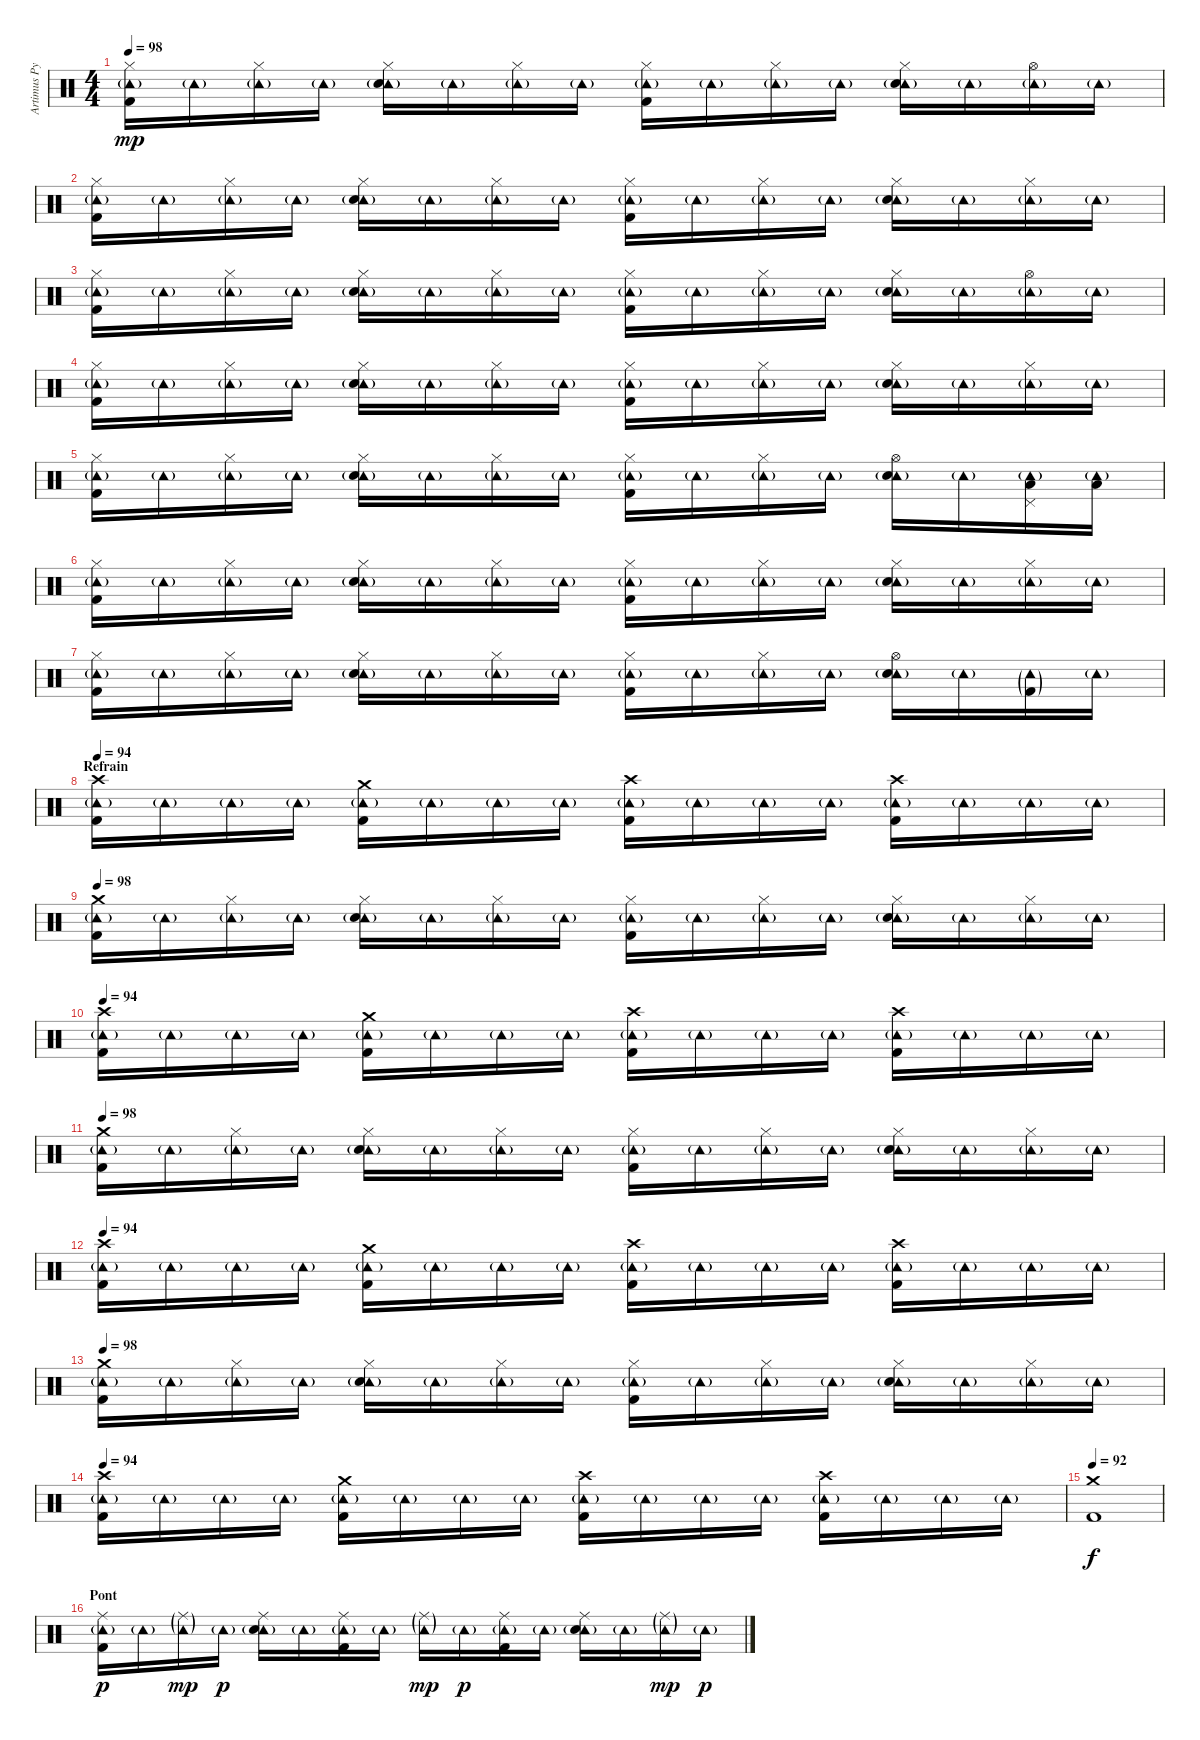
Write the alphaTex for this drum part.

\track ("Artimus Pyle (drums)" "Artimus Py") {instrument percussion}
\staff {score}
\articulation defaults
\ts (4 4)
\tempo 98
\clef neutral
\ks c
("Tambourine (hit)"{g} "Hi-Hat (closed)" "Kick (hit) 2").16{dy mp} "Tambourine (hit)"{g}.16 ("Tambourine (hit)"{g} "Hi-Hat (closed)").16 "Tambourine (hit)"{g}.16 ("Tambourine (hit)"{g} "Hi-Hat (closed)" "Electric Snare (hit)").16 "Tambourine (hit)"{g}.16 ("Tambourine (hit)"{g} "Hi-Hat (closed)").16 "Tambourine (hit)"{g}.16 ("Tambourine (hit)"{g} "Hi-Hat (closed)" "Kick (hit) 2").16 "Tambourine (hit)"{g}.16 ("Tambourine (hit)"{g} "Hi-Hat (closed)").16 "Tambourine (hit)"{g}.16 ("Tambourine (hit)"{g} "Hi-Hat (closed)" "Electric Snare (hit)").16 "Tambourine (hit)"{g}.16 ("Tambourine (hit)"{g} "Hi-Hat (open)").16 "Tambourine (hit)"{g}.16 |
("Tambourine (hit)"{g} "Hi-Hat (closed)" "Kick (hit) 2").16 "Tambourine (hit)"{g}.16 ("Tambourine (hit)"{g} "Hi-Hat (closed)").16 "Tambourine (hit)"{g}.16 ("Tambourine (hit)"{g} "Hi-Hat (closed)" "Electric Snare (hit)").16 "Tambourine (hit)"{g}.16 ("Tambourine (hit)"{g} "Hi-Hat (closed)").16 "Tambourine (hit)"{g}.16 ("Tambourine (hit)"{g} "Hi-Hat (closed)" "Kick (hit) 2").16 "Tambourine (hit)"{g}.16 ("Tambourine (hit)"{g} "Hi-Hat (closed)").16 "Tambourine (hit)"{g}.16 ("Tambourine (hit)"{g} "Hi-Hat (closed)" "Electric Snare (hit)").16 "Tambourine (hit)"{g}.16 ("Tambourine (hit)"{g} "Hi-Hat (closed)").16 "Tambourine (hit)"{g}.16 |
("Tambourine (hit)"{g} "Hi-Hat (closed)" "Kick (hit) 2").16 "Tambourine (hit)"{g}.16 ("Tambourine (hit)"{g} "Hi-Hat (closed)").16 "Tambourine (hit)"{g}.16 ("Tambourine (hit)"{g} "Hi-Hat (closed)" "Electric Snare (hit)").16 "Tambourine (hit)"{g}.16 ("Tambourine (hit)"{g} "Hi-Hat (closed)").16 "Tambourine (hit)"{g}.16 ("Tambourine (hit)"{g} "Hi-Hat (closed)" "Kick (hit) 2").16 "Tambourine (hit)"{g}.16 ("Tambourine (hit)"{g} "Hi-Hat (closed)").16 "Tambourine (hit)"{g}.16 ("Tambourine (hit)"{g} "Hi-Hat (closed)" "Electric Snare (hit)").16 "Tambourine (hit)"{g}.16 ("Tambourine (hit)"{g} "Hi-Hat (open)").16 "Tambourine (hit)"{g}.16 |
("Tambourine (hit)"{g} "Hi-Hat (closed)" "Kick (hit) 2").16 "Tambourine (hit)"{g}.16 ("Tambourine (hit)"{g} "Hi-Hat (closed)").16 "Tambourine (hit)"{g}.16 ("Tambourine (hit)"{g} "Hi-Hat (closed)" "Electric Snare (hit)").16 "Tambourine (hit)"{g}.16 ("Tambourine (hit)"{g} "Hi-Hat (closed)").16 "Tambourine (hit)"{g}.16 ("Tambourine (hit)"{g} "Hi-Hat (closed)" "Kick (hit) 2").16 "Tambourine (hit)"{g}.16 ("Tambourine (hit)"{g} "Hi-Hat (closed)").16 "Tambourine (hit)"{g}.16 ("Tambourine (hit)"{g} "Hi-Hat (closed)" "Electric Snare (hit)").16 "Tambourine (hit)"{g}.16 ("Tambourine (hit)"{g} "Hi-Hat (closed)").16 "Tambourine (hit)"{g}.16 |
("Tambourine (hit)"{g} "Hi-Hat (closed)" "Kick (hit) 2").16 "Tambourine (hit)"{g}.16 ("Tambourine (hit)"{g} "Hi-Hat (closed)").16 "Tambourine (hit)"{g}.16 ("Tambourine (hit)"{g} "Hi-Hat (closed)" "Electric Snare (hit)").16 "Tambourine (hit)"{g}.16 ("Tambourine (hit)"{g} "Hi-Hat (closed)").16 "Tambourine (hit)"{g}.16 ("Tambourine (hit)"{g} "Hi-Hat (closed)" "Kick (hit) 2").16 "Tambourine (hit)"{g}.16 ("Tambourine (hit)"{g} "Hi-Hat (closed)").16 "Tambourine (hit)"{g}.16 ("Tambourine (hit)"{g} "Hi-Hat (open)" "Electric Snare (hit)").16 "Tambourine (hit)"{g}.16 ("Tambourine (hit)"{g} "Pedal Hi-Hat (hit)" "Low Tom (hit)").16 ("Tambourine (hit)"{g} "Low Tom (hit)").16 |
("Tambourine (hit)"{g} "Hi-Hat (closed)" "Kick (hit) 2").16 "Tambourine (hit)"{g}.16 ("Tambourine (hit)"{g} "Hi-Hat (closed)").16 "Tambourine (hit)"{g}.16 ("Tambourine (hit)"{g} "Hi-Hat (closed)" "Electric Snare (hit)").16 "Tambourine (hit)"{g}.16 ("Tambourine (hit)"{g} "Hi-Hat (closed)").16 "Tambourine (hit)"{g}.16 ("Tambourine (hit)"{g} "Hi-Hat (closed)" "Kick (hit) 2").16 "Tambourine (hit)"{g}.16 ("Tambourine (hit)"{g} "Hi-Hat (closed)").16 "Tambourine (hit)"{g}.16 ("Tambourine (hit)"{g} "Hi-Hat (closed)" "Electric Snare (hit)").16 "Tambourine (hit)"{g}.16 ("Tambourine (hit)"{g} "Hi-Hat (closed)").16 "Tambourine (hit)"{g}.16 |
("Tambourine (hit)"{g} "Hi-Hat (closed)" "Kick (hit) 2").16 "Tambourine (hit)"{g}.16 ("Tambourine (hit)"{g} "Hi-Hat (closed)").16 "Tambourine (hit)"{g}.16 ("Tambourine (hit)"{g} "Hi-Hat (closed)" "Electric Snare (hit)").16 "Tambourine (hit)"{g}.16 ("Tambourine (hit)"{g} "Hi-Hat (closed)").16 "Tambourine (hit)"{g}.16 ("Tambourine (hit)"{g} "Hi-Hat (closed)" "Kick (hit) 2").16 "Tambourine (hit)"{g}.16 ("Tambourine (hit)"{g} "Hi-Hat (closed)").16 "Tambourine (hit)"{g}.16 ("Tambourine (hit)"{g} "Hi-Hat (open)" "Electric Snare (hit)").16 "Tambourine (hit)"{g}.16 ("Tambourine (hit)"{g} "Kick (hit) 2"{g}).16 "Tambourine (hit)"{g}.16 |
\section ("" "Refrain")
\tempo 94
("Tambourine (hit)"{g} "Crash high (hit)" "Kick (hit) 2").16 "Tambourine (hit)"{g}.16 "Tambourine (hit)"{g}.16 "Tambourine (hit)"{g}.16 ("Tambourine (hit)"{g} "Crash medium (hit)" "Kick (hit) 2").16 "Tambourine (hit)"{g}.16 "Tambourine (hit)"{g}.16 "Tambourine (hit)"{g}.16 ("Tambourine (hit)"{g} "Crash high (hit)" "Kick (hit) 2").16 "Tambourine (hit)"{g}.16 "Tambourine (hit)"{g}.16 "Tambourine (hit)"{g}.16 ("Tambourine (hit)"{g} "Crash high (hit)" "Kick (hit) 2").16 "Tambourine (hit)"{g}.16 "Tambourine (hit)"{g}.16 "Tambourine (hit)"{g}.16 |
\tempo 98
("Tambourine (hit)"{g} "Crash medium (hit)" "Kick (hit) 2").16 "Tambourine (hit)"{g}.16 ("Tambourine (hit)"{g} "Hi-Hat (closed)").16 "Tambourine (hit)"{g}.16 ("Tambourine (hit)"{g} "Hi-Hat (closed)" "Electric Snare (hit)").16 "Tambourine (hit)"{g}.16 ("Tambourine (hit)"{g} "Hi-Hat (closed)").16 "Tambourine (hit)"{g}.16 ("Tambourine (hit)"{g} "Hi-Hat (closed)" "Kick (hit) 2").16 "Tambourine (hit)"{g}.16 ("Tambourine (hit)"{g} "Hi-Hat (closed)").16 "Tambourine (hit)"{g}.16 ("Tambourine (hit)"{g} "Hi-Hat (closed)" "Electric Snare (hit)").16 "Tambourine (hit)"{g}.16 ("Tambourine (hit)"{g} "Hi-Hat (closed)").16 "Tambourine (hit)"{g}.16 |
\tempo 94
("Tambourine (hit)"{g} "Crash high (hit)" "Kick (hit) 2").16 "Tambourine (hit)"{g}.16 "Tambourine (hit)"{g}.16 "Tambourine (hit)"{g}.16 ("Tambourine (hit)"{g} "Crash medium (hit)" "Kick (hit) 2").16 "Tambourine (hit)"{g}.16 "Tambourine (hit)"{g}.16 "Tambourine (hit)"{g}.16 ("Tambourine (hit)"{g} "Crash high (hit)" "Kick (hit) 2").16 "Tambourine (hit)"{g}.16 "Tambourine (hit)"{g}.16 "Tambourine (hit)"{g}.16 ("Tambourine (hit)"{g} "Crash high (hit)" "Kick (hit) 2").16 "Tambourine (hit)"{g}.16 "Tambourine (hit)"{g}.16 "Tambourine (hit)"{g}.16 |
\tempo 98
("Tambourine (hit)"{g} "Crash medium (hit)" "Kick (hit) 2").16 "Tambourine (hit)"{g}.16 ("Tambourine (hit)"{g} "Hi-Hat (closed)").16 "Tambourine (hit)"{g}.16 ("Tambourine (hit)"{g} "Hi-Hat (closed)" "Electric Snare (hit)").16 "Tambourine (hit)"{g}.16 ("Tambourine (hit)"{g} "Hi-Hat (closed)").16 "Tambourine (hit)"{g}.16 ("Tambourine (hit)"{g} "Hi-Hat (closed)" "Kick (hit) 2").16 "Tambourine (hit)"{g}.16 ("Tambourine (hit)"{g} "Hi-Hat (closed)").16 "Tambourine (hit)"{g}.16 ("Tambourine (hit)"{g} "Hi-Hat (closed)" "Electric Snare (hit)").16 "Tambourine (hit)"{g}.16 ("Tambourine (hit)"{g} "Hi-Hat (closed)").16 "Tambourine (hit)"{g}.16 |
\tempo 94
("Tambourine (hit)"{g} "Crash high (hit)" "Kick (hit) 2").16 "Tambourine (hit)"{g}.16 "Tambourine (hit)"{g}.16 "Tambourine (hit)"{g}.16 ("Tambourine (hit)"{g} "Crash medium (hit)" "Kick (hit) 2").16 "Tambourine (hit)"{g}.16 "Tambourine (hit)"{g}.16 "Tambourine (hit)"{g}.16 ("Tambourine (hit)"{g} "Crash high (hit)" "Kick (hit) 2").16 "Tambourine (hit)"{g}.16 "Tambourine (hit)"{g}.16 "Tambourine (hit)"{g}.16 ("Tambourine (hit)"{g} "Crash high (hit)" "Kick (hit) 2").16 "Tambourine (hit)"{g}.16 "Tambourine (hit)"{g}.16 "Tambourine (hit)"{g}.16 |
\tempo 98
("Tambourine (hit)"{g} "Crash medium (hit)" "Kick (hit) 2").16 "Tambourine (hit)"{g}.16 ("Tambourine (hit)"{g} "Hi-Hat (closed)").16 "Tambourine (hit)"{g}.16 ("Tambourine (hit)"{g} "Hi-Hat (closed)" "Electric Snare (hit)").16 "Tambourine (hit)"{g}.16 ("Tambourine (hit)"{g} "Hi-Hat (closed)").16 "Tambourine (hit)"{g}.16 ("Tambourine (hit)"{g} "Hi-Hat (closed)" "Kick (hit) 2").16 "Tambourine (hit)"{g}.16 ("Tambourine (hit)"{g} "Hi-Hat (closed)").16 "Tambourine (hit)"{g}.16 ("Tambourine (hit)"{g} "Hi-Hat (closed)" "Electric Snare (hit)").16 "Tambourine (hit)"{g}.16 ("Tambourine (hit)"{g} "Hi-Hat (closed)").16 "Tambourine (hit)"{g}.16 |
\tempo 94
("Tambourine (hit)"{g} "Crash high (hit)" "Kick (hit) 2").16 "Tambourine (hit)"{g}.16 "Tambourine (hit)"{g}.16 "Tambourine (hit)"{g}.16 ("Tambourine (hit)"{g} "Crash medium (hit)" "Kick (hit) 2").16 "Tambourine (hit)"{g}.16 "Tambourine (hit)"{g}.16 "Tambourine (hit)"{g}.16 ("Tambourine (hit)"{g} "Crash high (hit)" "Kick (hit) 2").16 "Tambourine (hit)"{g}.16 "Tambourine (hit)"{g}.16 "Tambourine (hit)"{g}.16 ("Tambourine (hit)"{g} "Crash high (hit)" "Kick (hit) 2").16 "Tambourine (hit)"{g}.16 "Tambourine (hit)"{g}.16 "Tambourine (hit)"{g}.16 |
\tempo 92
("Crash medium (hit)" "Kick (hit) 2").1{dy f} |
\section ("" "Pont")
("Tambourine (hit)"{g} "Ride (middle)" "Kick (hit) 2").16{dy p} "Tambourine (hit)"{g}.16 ("Tambourine (hit)"{g} "Ride (middle)"{g}).16{dy mp} "Tambourine (hit)"{g}.16{dy p} ("Tambourine (hit)"{g} "Ride (middle)" "Electric Snare (hit)").16 "Tambourine (hit)"{g}.16 ("Tambourine (hit)"{g} "Ride (middle)" "Kick (hit) 2").16 "Tambourine (hit)"{g}.16 ("Tambourine (hit)"{g} "Ride (middle)"{g}).16{dy mp} "Tambourine (hit)"{g}.16{dy p} ("Tambourine (hit)"{g} "Ride (middle)" "Kick (hit) 2").16 "Tambourine (hit)"{g}.16 ("Tambourine (hit)"{g} "Ride (middle)" "Electric Snare (hit)").16 "Tambourine (hit)"{g}.16 ("Tambourine (hit)"{g} "Ride (middle)"{g}).16{dy mp} "Tambourine (hit)"{g}.16{dy p}
